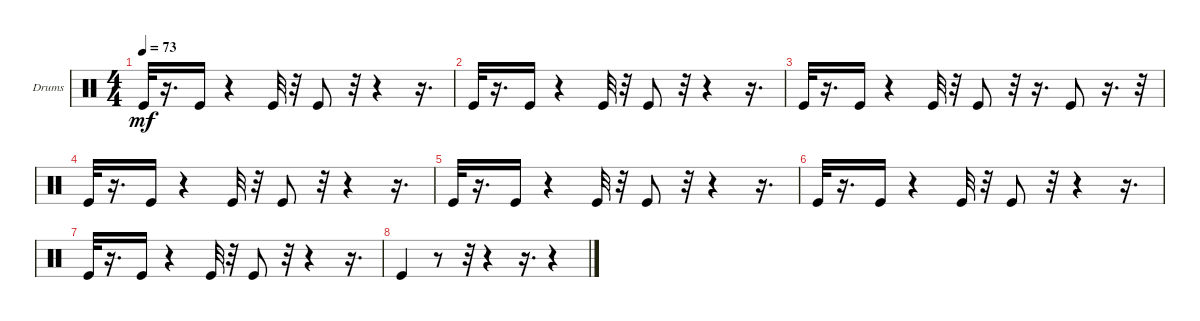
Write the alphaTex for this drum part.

\bracketExtendMode groupsimilarinstruments
\firstSystemTrackNameOrientation horizontal
\otherSystemsTrackNameOrientation horizontal
\track ("kick" "Drums") {instrument percussion}
\staff {score}
\articulation defaults
\ts (4 4)
\tempo 73
\clef neutral
\ks c "Kick (hit)".32{dy mf}
r.16{d} "Kick (hit)".16 r.4 "Kick (hit)".32 r.32 "Kick (hit)".8 r.32 r.4 r.16{d} |
"Kick (hit)".32 r.16{d} "Kick (hit)".16 r.4 "Kick (hit)".32 r.32 "Kick (hit)".8 r.32 r.4 r.16{d} |
"Kick (hit)".32 r.16{d} "Kick (hit)".16 r.4 "Kick (hit)".32 r.32 "Kick (hit)".8 r.32 r.16{d} "Kick (hit)".8 r.16{d} r.32 |
"Kick (hit)".32 r.16{d} "Kick (hit)".16 r.4 "Kick (hit)".32 r.32 "Kick (hit)".8 r.32 r.4 r.16{d} |
"Kick (hit)".32 r.16{d} "Kick (hit)".16 r.4 "Kick (hit)".32 r.32 "Kick (hit)".8 r.32 r.4 r.16{d} |
"Kick (hit)".32 r.16{d} "Kick (hit)".16 r.4 "Kick (hit)".32 r.32 "Kick (hit)".8 r.32 r.4 r.16{d} |
"Kick (hit)".32 r.16{d} "Kick (hit)".16 r.4 "Kick (hit)".32 r.32 "Kick (hit)".8 r.32 r.4 r.16{d} |
"Kick (hit)".4 r.8 r.32 r.4 r.16{d} r.4
